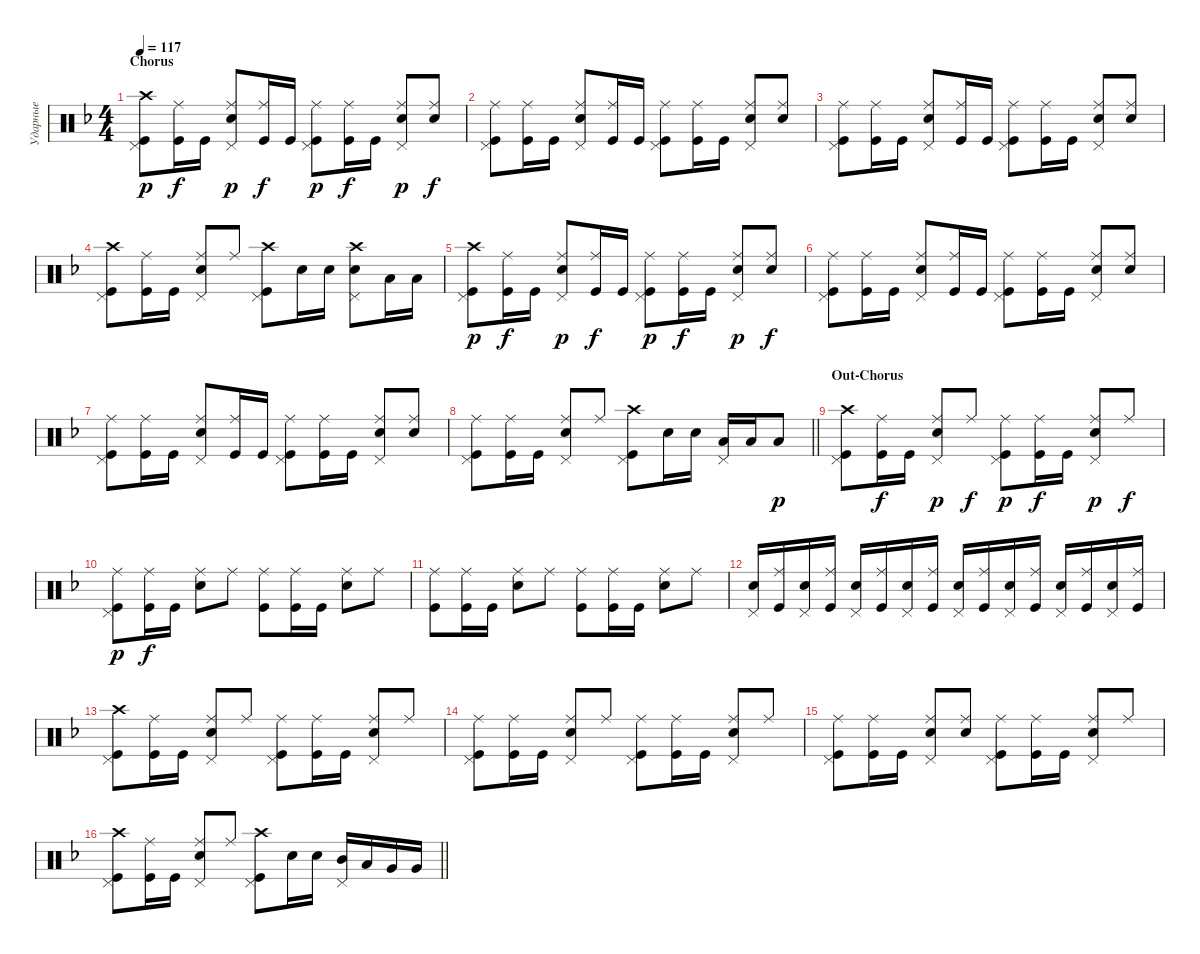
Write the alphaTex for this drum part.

\track ("Ударные" "Ударные") {instrument percussion}
\staff {score}
\articulation defaults
\ts (4 4)
\section ("" "Chorus")
\tempo 117
\clef neutral
\ks dminor
("Crash high (hit)" "Kick (hit)" "Pedal Hi-Hat (hit)").8{dy p} ("Ride (middle)" "Kick (hit)").16{dy f} "Kick (hit)".16 ("Ride (middle)" "Snare (hit) 2" "Pedal Hi-Hat (hit)").8{dy p} ("Ride (middle)" "Kick (hit)").16{dy f} "Kick (hit)".16 ("Ride (middle)" "Kick (hit)" "Pedal Hi-Hat (hit)").8{dy p} ("Ride (middle)" "Kick (hit)").16{dy f} "Kick (hit)".16 ("Ride (middle)" "Snare (hit) 2" "Pedal Hi-Hat (hit)").8{dy p} ("Ride (middle)" "Snare (hit) 2").8{dy f} |
("Kick (hit)" "Ride (middle)" "Pedal Hi-Hat (hit)").8 ("Ride (middle)" "Kick (hit)").16 "Kick (hit)".16 ("Ride (middle)" "Snare (hit) 2" "Pedal Hi-Hat (hit)").8 ("Ride (middle)" "Kick (hit)").16 "Kick (hit)".16 ("Ride (middle)" "Kick (hit)" "Pedal Hi-Hat (hit)").8 ("Ride (middle)" "Kick (hit)").16 "Kick (hit)".16 ("Ride (middle)" "Snare (hit) 2" "Pedal Hi-Hat (hit)").8 ("Ride (middle)" "Snare (hit) 2").8 |
("Kick (hit)" "Ride (middle)" "Pedal Hi-Hat (hit)").8 ("Ride (middle)" "Kick (hit)").16 "Kick (hit)".16 ("Ride (middle)" "Snare (hit) 2" "Pedal Hi-Hat (hit)").8 ("Ride (middle)" "Kick (hit)").16 "Kick (hit)".16 ("Ride (middle)" "Kick (hit)" "Pedal Hi-Hat (hit)").8 ("Ride (middle)" "Kick (hit)").16 "Kick (hit)".16 ("Ride (middle)" "Snare (hit) 2" "Pedal Hi-Hat (hit)").8 ("Ride (middle)" "Snare (hit) 2").8 |
("Kick (hit)" "Crash high (hit)" "Pedal Hi-Hat (hit)").8 ("Ride (middle)" "Kick (hit)").16 "Kick (hit)".16 ("Ride (middle)" "Snare (hit) 2" "Pedal Hi-Hat (hit)").8 "Ride (middle)".8 ("Crash high (hit)" "Kick (hit)" "Pedal Hi-Hat (hit)").8 "Snare (hit) 2".16 "Snare (hit) 2".16 ("Pedal Hi-Hat (hit)" "Snare (hit) 2" "Crash high (hit)").8 "Low Tom (hit)".16 "Low Tom (hit)".16 |
("Crash high (hit)" "Kick (hit)" "Pedal Hi-Hat (hit)").8{dy p} ("Ride (middle)" "Kick (hit)").16{dy f} "Kick (hit)".16 ("Ride (middle)" "Snare (hit) 2" "Pedal Hi-Hat (hit)").8{dy p} ("Ride (middle)" "Kick (hit)").16{dy f} "Kick (hit)".16 ("Ride (middle)" "Kick (hit)" "Pedal Hi-Hat (hit)").8{dy p} ("Ride (middle)" "Kick (hit)").16{dy f} "Kick (hit)".16 ("Ride (middle)" "Snare (hit) 2" "Pedal Hi-Hat (hit)").8{dy p} ("Ride (middle)" "Snare (hit) 2").8{dy f} |
("Kick (hit)" "Ride (middle)" "Pedal Hi-Hat (hit)").8 ("Ride (middle)" "Kick (hit)").16 "Kick (hit)".16 ("Ride (middle)" "Snare (hit) 2" "Pedal Hi-Hat (hit)").8 ("Ride (middle)" "Kick (hit)").16 "Kick (hit)".16 ("Ride (middle)" "Kick (hit)" "Pedal Hi-Hat (hit)").8 ("Ride (middle)" "Kick (hit)").16 "Kick (hit)".16 ("Ride (middle)" "Snare (hit) 2" "Pedal Hi-Hat (hit)").8 ("Ride (middle)" "Snare (hit) 2").8 |
("Kick (hit)" "Ride (middle)" "Pedal Hi-Hat (hit)").8 ("Ride (middle)" "Kick (hit)").16 "Kick (hit)".16 ("Ride (middle)" "Snare (hit) 2" "Pedal Hi-Hat (hit)").8 ("Ride (middle)" "Kick (hit)").16 "Kick (hit)".16 ("Ride (middle)" "Kick (hit)" "Pedal Hi-Hat (hit)").8 ("Ride (middle)" "Kick (hit)").16 "Kick (hit)".16 ("Ride (middle)" "Snare (hit) 2" "Pedal Hi-Hat (hit)").8 ("Ride (middle)" "Snare (hit) 2").8 |
\barLineRight lightlight
("Kick (hit)" "Ride (middle)" "Pedal Hi-Hat (hit)").8 ("Ride (middle)" "Kick (hit)").16 "Kick (hit)".16 ("Ride (middle)" "Snare (hit) 2" "Pedal Hi-Hat (hit)").8 "Ride (middle)".8 ("Crash high (hit)" "Kick (hit)" "Pedal Hi-Hat (hit)").8 "Snare (hit) 2".16 "Snare (hit) 2".16 ("Low Tom (hit)" "Pedal Hi-Hat (hit)").16 "Low Tom (hit)".16 "Low Tom (hit)".8{dy p} |
\section ("" "Out-Chorus")
("Kick (hit)" "Crash high (hit)" "Pedal Hi-Hat (hit)").8 ("Ride (middle)" "Kick (hit)").16{dy f} "Kick (hit)".16 ("Ride (middle)" "Snare (hit) 2" "Pedal Hi-Hat (hit)").8{dy p} "Ride (middle)".8{dy f} ("Ride (middle)" "Kick (hit)" "Pedal Hi-Hat (hit)").8{dy p} ("Ride (middle)" "Kick (hit)").16{dy f} "Kick (hit)".16 ("Ride (middle)" "Snare (hit) 2" "Pedal Hi-Hat (hit)").8{dy p} "Ride (middle)".8{dy f} |
("Kick (hit)" "Ride (middle)" "Pedal Hi-Hat (hit)").8{dy p} ("Ride (middle)" "Kick (hit)").16{dy f} "Kick (hit)".16 ("Ride (middle)" "Snare (hit) 2").8 "Ride (middle)".8 ("Ride (middle)" "Kick (hit)").8 ("Ride (middle)" "Kick (hit)").16 "Kick (hit)".16 ("Ride (middle)" "Snare (hit) 2").8 "Ride (middle)".8 |
("Kick (hit)" "Ride (middle)").8 ("Ride (middle)" "Kick (hit)").16 "Kick (hit)".16 ("Ride (middle)" "Snare (hit) 2").8 "Ride (middle)".8 ("Ride (middle)" "Kick (hit)").8 ("Ride (middle)" "Kick (hit)").16 "Kick (hit)".16 ("Ride (middle)" "Snare (hit) 2").8 "Ride (middle)".8 |
("Snare (hit) 2" "Pedal Hi-Hat (hit)").16 ("Kick (hit)" "Ride (middle)").16 ("Snare (hit) 2" "Pedal Hi-Hat (hit)").16 ("Kick (hit)" "Ride (middle)").16 ("Snare (hit) 2" "Pedal Hi-Hat (hit)").16 ("Kick (hit)" "Ride (middle)").16 ("Snare (hit) 2" "Pedal Hi-Hat (hit)").16 ("Kick (hit)" "Ride (middle)").16 ("Snare (hit) 2" "Pedal Hi-Hat (hit)").16 ("Kick (hit)" "Ride (middle)").16 ("Snare (hit) 2" "Pedal Hi-Hat (hit)").16 ("Kick (hit)" "Ride (middle)").16 ("Snare (hit) 2" "Pedal Hi-Hat (hit)").16 ("Kick (hit)" "Ride (middle)").16 ("Snare (hit) 2" "Pedal Hi-Hat (hit)").16 ("Kick (hit)" "Ride (middle)").16 |
("Kick (hit)" "Crash high (hit)" "Pedal Hi-Hat (hit)").8 ("Ride (middle)" "Kick (hit)").16 "Kick (hit)".16 ("Ride (middle)" "Snare (hit) 2" "Pedal Hi-Hat (hit)").8 "Ride (middle)".8 ("Ride (middle)" "Kick (hit)" "Pedal Hi-Hat (hit)").8 ("Ride (middle)" "Kick (hit)").16 "Kick (hit)".16 ("Ride (middle)" "Snare (hit) 2" "Pedal Hi-Hat (hit)").8 "Ride (middle)".8 |
("Kick (hit)" "Ride (middle)" "Pedal Hi-Hat (hit)").8 ("Ride (middle)" "Kick (hit)").16 "Kick (hit)".16 ("Ride (middle)" "Snare (hit) 2" "Pedal Hi-Hat (hit)").8 "Ride (middle)".8 ("Ride (middle)" "Kick (hit)" "Pedal Hi-Hat (hit)").8 ("Ride (middle)" "Kick (hit)").16 "Kick (hit)".16 ("Ride (middle)" "Snare (hit) 2" "Pedal Hi-Hat (hit)").8 "Ride (middle)".8 |
("Kick (hit)" "Ride (middle)" "Pedal Hi-Hat (hit)").8 ("Ride (middle)" "Kick (hit)").16 "Kick (hit)".16 ("Ride (middle)" "Snare (hit) 2" "Pedal Hi-Hat (hit)").8 ("Ride (middle)" "Snare (hit) 2").8 ("Ride (middle)" "Kick (hit)" "Pedal Hi-Hat (hit)").8 ("Ride (middle)" "Kick (hit)").16 "Kick (hit)".16 ("Ride (middle)" "Snare (hit) 2" "Pedal Hi-Hat (hit)").8 "Ride (middle)".8 |
\barLineRight lightlight
("Kick (hit)" "Crash high (hit)" "Pedal Hi-Hat (hit)").8 ("Ride (middle)" "Kick (hit)").16 "Kick (hit)".16 ("Ride (middle)" "Snare (hit) 2" "Pedal Hi-Hat (hit)").8 "Ride (middle)".8 ("Crash high (hit)" "Kick (hit)" "Pedal Hi-Hat (hit)").8 "Snare (hit) 2".16 "Snare (hit) 2".16 ("Mid Tom (hit)" "Pedal Hi-Hat (hit)").16 "Low Tom (hit)".16 "Very Low Tom (hit)".16 "Very Low Tom (hit)".16
